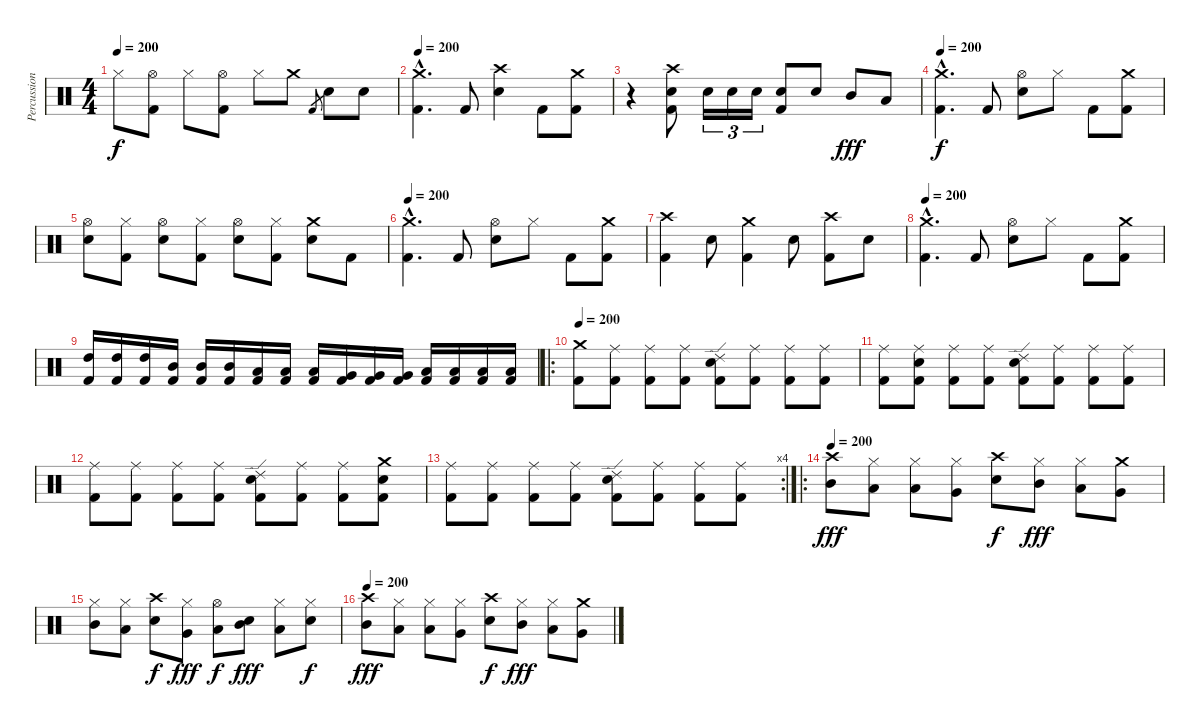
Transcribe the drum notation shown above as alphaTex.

\track ("Percussions" "Percussion") {instrument percussion}
\staff {score}
\articulation defaults
\ts (4 4)
\tempo 200
\clef neutral
\ks c "Hi-Hat (closed)".8{dy f}
("Hi-Hat (open)" "Kick (hit) 2").8 "Hi-Hat (closed)".8 ("Hi-Hat (open)" "Kick (hit) 2").8 "Hi-Hat (closed)".8 "Crash medium (hit)".8 "Kick (hit) 2".8{gr} "Electric Snare (hit)".8 "Electric Snare (hit)".8 |
\tempo 200
("Crash medium (hit)"{hac} "Kick (hit) 2"{hac}).4{d} "Kick (hit) 2".8 ("Crash high (hit)" "Electric Snare (hit)").4 "Kick (hit) 2".8 ("Crash medium (hit)" "Kick (hit) 2").8 |
r.4 ("Crash high (hit)" "Electric Snare (hit)" "Kick (hit) 2").8 "Electric Snare (hit)".16{tu (3 2)} "Electric Snare (hit)".16{tu (3 2)} "Electric Snare (hit)".16{tu (3 2)} ("Electric Snare (hit)" "Kick (hit) 2").8 "Electric Snare (hit)".8 "Mid Tom (hit)".8{dy fff} "Low Tom (hit)".8 |
\tempo 200
("Crash medium (hit)"{hac} "Kick (hit) 2"{hac}).4{d dy f} "Kick (hit) 2".8 ("Hi-Hat (open)" "Electric Snare (hit)").8 "Hi-Hat (closed)".8 "Kick (hit) 2".8 ("Crash medium (hit)" "Kick (hit) 2").8 |
("Hi-Hat (open)" "Electric Snare (hit)").8 ("Hi-Hat (closed)" "Kick (hit) 2").8 ("Hi-Hat (open)" "Electric Snare (hit)").8 ("Hi-Hat (closed)" "Kick (hit) 2").8 ("Hi-Hat (open)" "Electric Snare (hit)").8 ("Hi-Hat (closed)" "Kick (hit) 2").8 ("Crash medium (hit)" "Electric Snare (hit)").8 "Kick (hit) 2".8 |
\tempo 200
("Crash medium (hit)"{hac} "Kick (hit) 2"{hac}).4{d} "Kick (hit) 2".8 ("Hi-Hat (open)" "Electric Snare (hit)").8 "Hi-Hat (closed)".8 "Kick (hit) 2".8 ("Crash medium (hit)" "Kick (hit) 2").8 |
("Crash high (hit)" "Kick (hit) 2").4 "Electric Snare (hit)".8 ("Crash medium (hit)" "Kick (hit) 2").4 "Electric Snare (hit)".8 ("Crash high (hit)" "Kick (hit) 2").8 "Electric Snare (hit)".8 |
\tempo 200
("Crash medium (hit)"{hac} "Kick (hit) 2"{hac}).4{d} "Kick (hit) 2".8 ("Hi-Hat (open)" "Electric Snare (hit)").8 "Hi-Hat (closed)".8 "Kick (hit) 2".8 ("Crash medium (hit)" "Kick (hit) 2").8 |
("High Tom (hit)" "Kick (hit) 2").16 ("High Tom (hit)" "Kick (hit) 2").16 ("High Tom (hit)" "Kick (hit) 2").16 ("Mid Tom (hit)" "Kick (hit) 2").16 ("Mid Tom (hit)" "Kick (hit) 2").16 ("Mid Tom (hit)" "Kick (hit) 2").16 ("Low Tom (hit)" "Kick (hit) 2").16 ("Low Tom (hit)" "Kick (hit) 2").16 ("Low Tom (hit)" "Kick (hit) 2").16 ("Very Low Tom (hit)" "Kick (hit) 2").16 ("Very Low Tom (hit)" "Kick (hit) 2").16 ("Very Low Tom (hit)" "Kick (hit) 2").16 ("Low Floor Tom (hit)" "Kick (hit) 2").16 ("Low Floor Tom (hit)" "Kick (hit) 2").16 ("Low Floor Tom (hit)" "Kick (hit) 2").16 ("Low Floor Tom (hit)" "Kick (hit) 2").16 |
\ro
\tempo 200
("Crash medium (hit)" "Kick (hit) 2").8 ("Ride (middle)" "Kick (hit) 2").8 ("Ride (middle)" "Kick (hit) 2").8 ("Ride (middle)" "Kick (hit) 2").8 ("Ride (edge) 2" "Electric Snare (hit)" "Kick (hit) 2").8 ("Ride (middle)" "Kick (hit) 2").8 ("Ride (middle)" "Kick (hit) 2").8 ("Ride (middle)" "Kick (hit) 2").8 |
("Ride (middle)" "Kick (hit) 2").8 ("Ride (middle)" "Electric Snare (hit)" "Kick (hit) 2").8 ("Ride (middle)" "Kick (hit) 2").8 ("Ride (middle)" "Kick (hit) 2").8 ("Ride (edge) 2" "Electric Snare (hit)" "Kick (hit) 2").8 ("Ride (middle)" "Kick (hit) 2").8 ("Ride (middle)" "Kick (hit) 2").8 ("Ride (middle)" "Kick (hit) 2").8 |
("Ride (middle)" "Kick (hit) 2").8 ("Ride (middle)" "Kick (hit) 2").8 ("Ride (middle)" "Kick (hit) 2").8 ("Ride (middle)" "Kick (hit) 2").8 ("Ride (edge) 2" "Electric Snare (hit)" "Kick (hit) 2").8 ("Ride (middle)" "Kick (hit) 2").8 ("Ride (middle)" "Kick (hit) 2").8 ("Crash medium (hit)" "Electric Snare (hit)" "Kick (hit) 2").8 |
\rc 4
("Ride (middle)" "Kick (hit) 2").8 ("Ride (middle)" "Kick (hit) 2").8 ("Ride (middle)" "Kick (hit) 2").8 ("Ride (middle)" "Kick (hit) 2").8 ("Ride (edge) 2" "Electric Snare (hit)" "Kick (hit) 2").8 ("Ride (middle)" "Kick (hit) 2").8 ("Ride (middle)" "Kick (hit) 2").8 ("Ride (middle)" "Kick (hit) 2").8 |
\ro
\tempo 200
("Crash high (hit)" "Mid Tom (hit)").8{dy fff} ("Hi-Hat (closed)" "Low Tom (hit)").8 ("Hi-Hat (closed)" "Low Tom (hit)").8 ("Hi-Hat (closed)" "Very Low Tom (hit)").8 ("Crash high (hit)" "Electric Snare (hit)").8{dy f} ("Hi-Hat (closed)" "Mid Tom (hit)").8{dy fff} ("Hi-Hat (closed)" "Low Tom (hit)").8 ("Crash medium (hit)" "Very Low Tom (hit)").8 |
("Hi-Hat (closed)" "Mid Tom (hit)").8 ("Hi-Hat (closed)" "Low Tom (hit)").8 ("Crash high (hit)" "Electric Snare (hit)").8{dy f} ("Hi-Hat (closed)" "Very Low Tom (hit)").8{dy fff} ("Hi-Hat (open)" "Low Tom (hit)").8{dy f} ("Electric Snare (hit)" "Mid Tom (hit)").8{dy fff} ("Hi-Hat (closed)" "Low Tom (hit)").8 ("Hi-Hat (closed)" "Electric Snare (hit)").8{dy f} |
\tempo 200
("Crash high (hit)" "Mid Tom (hit)").8{dy fff} ("Hi-Hat (closed)" "Low Tom (hit)").8 ("Hi-Hat (closed)" "Low Tom (hit)").8 ("Hi-Hat (closed)" "Very Low Tom (hit)").8 ("Crash high (hit)" "Electric Snare (hit)").8{dy f} ("Hi-Hat (closed)" "Mid Tom (hit)").8{dy fff} ("Hi-Hat (closed)" "Low Tom (hit)").8 ("Crash medium (hit)" "Very Low Tom (hit)").8
